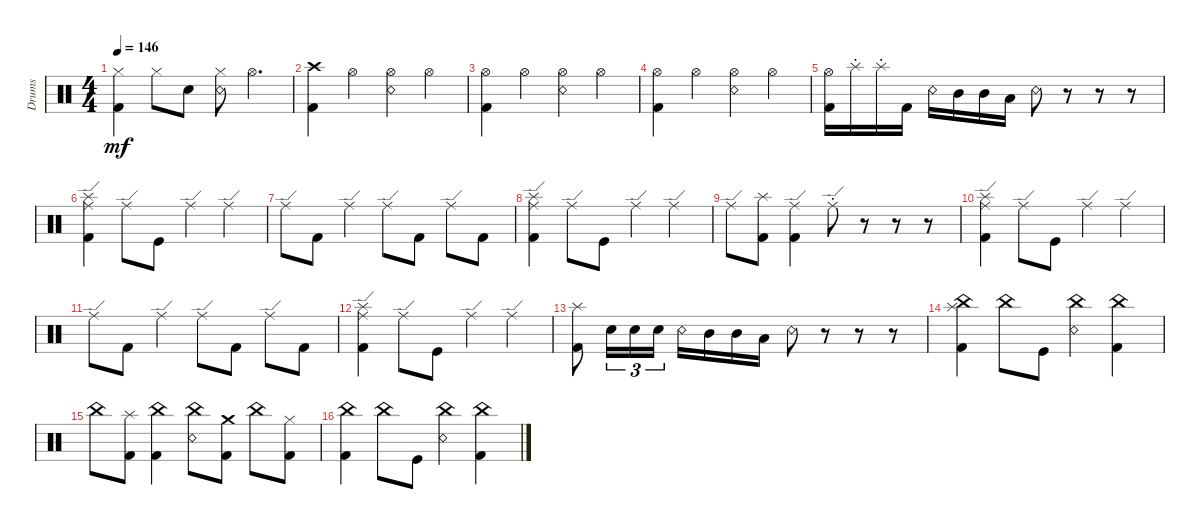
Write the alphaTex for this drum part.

\track ("Drums" "Drums") {instrument percussion}
\staff {score}
\articulation defaults
\ts (4 4)
\tempo 146
\clef neutral
\ks c
("Hi-Hat (closed)" "Kick (hit) 2").4{dy mf} "Hi-Hat (closed)".8 "Snare (hit) 2".8 ("Hi-Hat (closed)" "Snare (rim shot)").8 "Hi-Hat (open)".4{d} |
("Crash high (hit)" "Kick (hit) 2").4 "Hi-Hat (open)".4 ("Hi-Hat (open)" "Snare (rim shot)").4 "Hi-Hat (open)".4 |
("Hi-Hat (open)" "Kick (hit) 2").4 "Hi-Hat (open)".4 ("Hi-Hat (open)" "Snare (rim shot)").4 "Hi-Hat (open)".4 |
("Hi-Hat (open)" "Kick (hit) 2").4 "Hi-Hat (open)".4 ("Hi-Hat (open)" "Snare (rim shot)").4 "Hi-Hat (open)".4 |
("Hi-Hat (open)" "Kick (hit) 2").16 "Splash (choke)".16 "Splash (choke)".16 "Kick (hit) 2".16 "Snare (rim shot)".16 "Mid Tom (hit)".16 "Mid Tom (hit)".16 "Low Tom (hit)".16 "Snare (rim shot)".8 r.8 r.8 r.8 |
("Splash (hit)" "Ride (edge)" "Kick (hit) 2").4 "Ride (edge)".8 "Kick (hit)".8 "Ride (edge)".4 "Ride (edge)".4 |
"Ride (edge)".8 "Kick (hit) 2".8 "Ride (edge)".4 "Ride (edge)".8 "Kick (hit) 2".8 "Ride (edge)".8 "Kick (hit) 2".8 |
("Splash (hit)" "Ride (edge)" "Kick (hit) 2").4 "Ride (edge)".8 "Kick (hit)".8 "Ride (edge)".4 "Ride (edge)".4 |
"Ride (edge)".8 ("Splash (hit)" "Kick (hit) 2").8 ("Ride (edge)" "Kick (hit) 2").4 "Ride (edge)"{st}.8 r.8 r.8 r.8 |
("Splash (hit)" "Ride (edge)" "Kick (hit) 2").4 "Ride (edge)".8 "Kick (hit)".8 "Ride (edge)".4 "Ride (edge)".4 |
"Ride (edge)".8 "Kick (hit) 2".8 "Ride (edge)".4 "Ride (edge)".8 "Kick (hit) 2".8 "Ride (edge)".8 "Kick (hit) 2".8 |
("Splash (hit)" "Ride (edge)" "Kick (hit) 2").4 "Ride (edge)".8 "Kick (hit)".8 "Ride (edge)".4 "Ride (edge)".4 |
("Splash (hit)" "Kick (hit) 2").8 "Snare (hit) 2".16{tu (3 2)} "Snare (hit) 2".16{tu (3 2)} "Snare (hit) 2".16{tu (3 2)} "Snare (rim shot)".16 "Mid Tom (hit)".16 "Mid Tom (hit)".16 "Low Tom (hit)".16 "Snare (rim shot)".8 r.8 r.8 r.8 |
("Splash (hit)" "China (hit)" "Kick (hit) 2").4 "China (hit)".8 "Kick (hit)".8 ("China (hit)" "Snare (rim shot)").4 ("China (hit)" "Kick (hit) 2").4 |
"China (hit)".8 ("Splash (hit)" "Kick (hit) 2").8 ("China (hit)" "Kick (hit) 2").4 ("China (hit)" "Snare (rim shot)").8 ("Crash medium (hit)" "Kick (hit) 2").8 "China (hit)".8 ("Hi-Hat (closed)" "Kick (hit) 2").8 |
("China (hit)" "Kick (hit) 2").4 "China (hit)".8 "Kick (hit)".8 ("China (hit)" "Snare (rim shot)").4 ("China (hit)" "Kick (hit) 2").4
